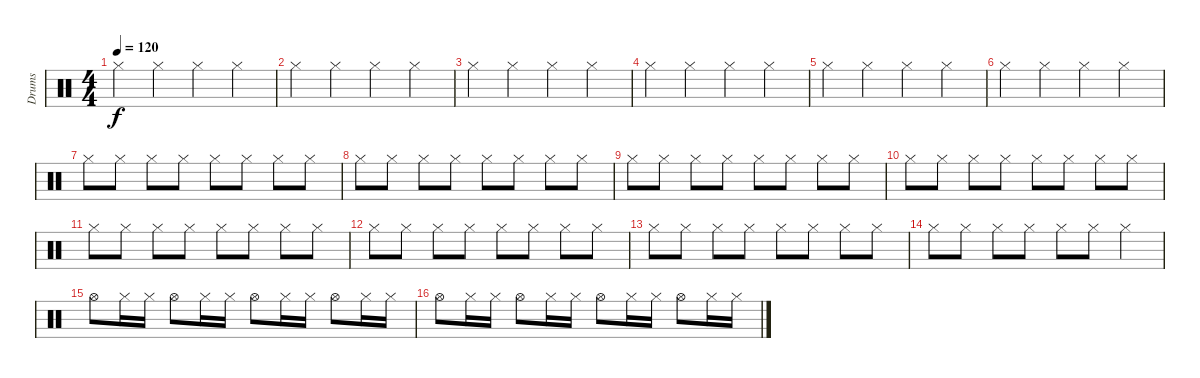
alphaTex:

\track ("Drums" "Drums") {instrument percussion}
\staff {score}
\articulation defaults
\ts (4 4)
\tempo 120
\clef neutral
\ks c "Hi-Hat (closed)".4{dy f} "Hi-Hat (closed)".4 "Hi-Hat (closed)".4 "Hi-Hat (closed)".4
|
"Hi-Hat (closed)".4 "Hi-Hat (closed)".4 "Hi-Hat (closed)".4 "Hi-Hat (closed)".4 |
"Hi-Hat (closed)".4 "Hi-Hat (closed)".4 "Hi-Hat (closed)".4 "Hi-Hat (closed)".4 |
"Hi-Hat (closed)".4 "Hi-Hat (closed)".4 "Hi-Hat (closed)".4 "Hi-Hat (closed)".4 |
"Hi-Hat (closed)".4 "Hi-Hat (closed)".4 "Hi-Hat (closed)".4 "Hi-Hat (closed)".4 |
"Hi-Hat (closed)".4 "Hi-Hat (closed)".4 "Hi-Hat (closed)".4 "Hi-Hat (closed)".4 |
"Hi-Hat (closed)".8 "Hi-Hat (closed)".8 "Hi-Hat (closed)".8 "Hi-Hat (closed)".8 "Hi-Hat (closed)".8 "Hi-Hat (closed)".8 "Hi-Hat (closed)".8 "Hi-Hat (closed)".8 |
"Hi-Hat (closed)".8 "Hi-Hat (closed)".8 "Hi-Hat (closed)".8 "Hi-Hat (closed)".8 "Hi-Hat (closed)".8 "Hi-Hat (closed)".8 "Hi-Hat (closed)".8 "Hi-Hat (closed)".8 |
"Hi-Hat (closed)".8 "Hi-Hat (closed)".8 "Hi-Hat (closed)".8 "Hi-Hat (closed)".8 "Hi-Hat (closed)".8 "Hi-Hat (closed)".8 "Hi-Hat (closed)".8 "Hi-Hat (closed)".8 |
"Hi-Hat (closed)".8 "Hi-Hat (closed)".8 "Hi-Hat (closed)".8 "Hi-Hat (closed)".8 "Hi-Hat (closed)".8 "Hi-Hat (closed)".8 "Hi-Hat (closed)".8 "Hi-Hat (closed)".8 |
"Hi-Hat (closed)".8 "Hi-Hat (closed)".8 "Hi-Hat (closed)".8 "Hi-Hat (closed)".8 "Hi-Hat (closed)".8 "Hi-Hat (closed)".8 "Hi-Hat (closed)".8 "Hi-Hat (closed)".8 |
"Hi-Hat (closed)".8 "Hi-Hat (closed)".8 "Hi-Hat (closed)".8 "Hi-Hat (closed)".8 "Hi-Hat (closed)".8 "Hi-Hat (closed)".8 "Hi-Hat (closed)".8 "Hi-Hat (closed)".8 |
"Hi-Hat (closed)".8 "Hi-Hat (closed)".8 "Hi-Hat (closed)".8 "Hi-Hat (closed)".8 "Hi-Hat (closed)".8 "Hi-Hat (closed)".8 "Hi-Hat (closed)".8 "Hi-Hat (closed)".8 |
"Hi-Hat (closed)".8 "Hi-Hat (closed)".8 "Hi-Hat (closed)".8 "Hi-Hat (closed)".8 "Hi-Hat (closed)".8 "Hi-Hat (closed)".8 "Hi-Hat (closed)".4 |
"Hi-Hat (open)".8 "Hi-Hat (closed)".16 "Hi-Hat (closed)".16 "Hi-Hat (open)".8 "Hi-Hat (closed)".16 "Hi-Hat (closed)".16 "Hi-Hat (open)".8 "Hi-Hat (closed)".16 "Hi-Hat (closed)".16 "Hi-Hat (open)".8 "Hi-Hat (closed)".16 "Hi-Hat (closed)".16 |
"Hi-Hat (open)".8 "Hi-Hat (closed)".16 "Hi-Hat (closed)".16 "Hi-Hat (open)".8 "Hi-Hat (closed)".16 "Hi-Hat (closed)".16 "Hi-Hat (open)".8 "Hi-Hat (closed)".16 "Hi-Hat (closed)".16 "Hi-Hat (open)".8 "Hi-Hat (closed)".16 "Hi-Hat (closed)".16
